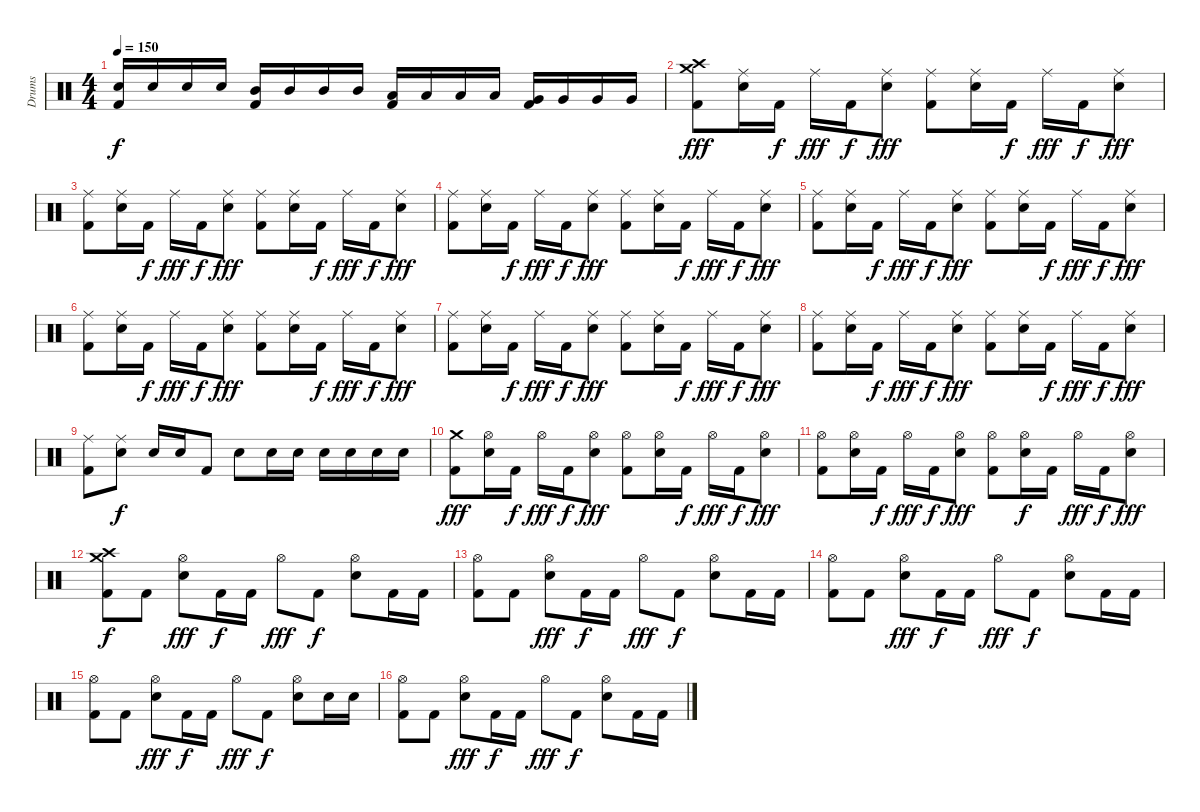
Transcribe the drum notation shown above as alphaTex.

\track ("Drums" "Drums") {instrument percussion}
\staff {score}
\articulation defaults
\ts (4 4)
\tempo 150
\clef neutral
\ks c
("Kick (hit) 2" "Electric Snare (hit)").16{dy f} "Electric Snare (hit)".16 "Electric Snare (hit)".16 "Electric Snare (hit)".16 ("Mid Tom (hit)" "Kick (hit) 2").16 "Mid Tom (hit)".16 "Mid Tom (hit)".16 "Mid Tom (hit)".16 ("Low Tom (hit)" "Kick (hit) 2").16 "Low Tom (hit)".16 "Low Tom (hit)".16 "Low Tom (hit)".16 ("Very Low Tom (hit)" "Kick (hit) 2").16 "Very Low Tom (hit)".16 "Very Low Tom (hit)".16 "Very Low Tom (hit)".16 |
("Crash high (hit)" "Crash medium (hit)" "Kick (hit) 2").8{dy fff} ("Ride (middle)" "Electric Snare (hit)").16 "Kick (hit) 2".16{dy f} "Ride (middle)".16{dy fff} "Kick (hit) 2".16{dy f} ("Ride (middle)" "Electric Snare (hit)").8{dy fff} ("Ride (middle)" "Kick (hit) 2").8 ("Ride (middle)" "Electric Snare (hit)").16 "Kick (hit) 2".16{dy f} "Ride (middle)".16{dy fff} "Kick (hit) 2".16{dy f} ("Ride (middle)" "Electric Snare (hit)").8{dy fff} |
("Ride (middle)" "Kick (hit) 2").8 ("Ride (middle)" "Electric Snare (hit)").16 "Kick (hit) 2".16{dy f} "Ride (middle)".16{dy fff} "Kick (hit) 2".16{dy f} ("Ride (middle)" "Electric Snare (hit)").8{dy fff} ("Ride (middle)" "Kick (hit) 2").8 ("Ride (middle)" "Electric Snare (hit)").16 "Kick (hit) 2".16{dy f} "Ride (middle)".16{dy fff} "Kick (hit) 2".16{dy f} ("Ride (middle)" "Electric Snare (hit)").8{dy fff} |
("Ride (middle)" "Kick (hit) 2").8 ("Ride (middle)" "Electric Snare (hit)").16 "Kick (hit) 2".16{dy f} "Ride (middle)".16{dy fff} "Kick (hit) 2".16{dy f} ("Ride (middle)" "Electric Snare (hit)").8{dy fff} ("Ride (middle)" "Kick (hit) 2").8 ("Ride (middle)" "Electric Snare (hit)").16 "Kick (hit) 2".16{dy f} "Ride (middle)".16{dy fff} "Kick (hit) 2".16{dy f} ("Ride (middle)" "Electric Snare (hit)").8{dy fff} |
("Ride (middle)" "Kick (hit) 2").8 ("Ride (middle)" "Electric Snare (hit)").16 "Kick (hit) 2".16{dy f} "Ride (middle)".16{dy fff} "Kick (hit) 2".16{dy f} ("Ride (middle)" "Electric Snare (hit)").8{dy fff} ("Ride (middle)" "Kick (hit) 2").8 ("Ride (middle)" "Electric Snare (hit)").16 "Kick (hit) 2".16{dy f} "Ride (middle)".16{dy fff} "Kick (hit) 2".16{dy f} ("Ride (middle)" "Electric Snare (hit)").8{dy fff} |
("Ride (middle)" "Kick (hit) 2").8 ("Ride (middle)" "Electric Snare (hit)").16 "Kick (hit) 2".16{dy f} "Ride (middle)".16{dy fff} "Kick (hit) 2".16{dy f} ("Ride (middle)" "Electric Snare (hit)").8{dy fff} ("Ride (middle)" "Kick (hit) 2").8 ("Ride (middle)" "Electric Snare (hit)").16 "Kick (hit) 2".16{dy f} "Ride (middle)".16{dy fff} "Kick (hit) 2".16{dy f} ("Ride (middle)" "Electric Snare (hit)").8{dy fff} |
("Ride (middle)" "Kick (hit) 2").8 ("Ride (middle)" "Electric Snare (hit)").16 "Kick (hit) 2".16{dy f} "Ride (middle)".16{dy fff} "Kick (hit) 2".16{dy f} ("Ride (middle)" "Electric Snare (hit)").8{dy fff} ("Ride (middle)" "Kick (hit) 2").8 ("Ride (middle)" "Electric Snare (hit)").16 "Kick (hit) 2".16{dy f} "Ride (middle)".16{dy fff} "Kick (hit) 2".16{dy f} ("Ride (middle)" "Electric Snare (hit)").8{dy fff} |
("Ride (middle)" "Kick (hit) 2").8 ("Ride (middle)" "Electric Snare (hit)").16 "Kick (hit) 2".16{dy f} "Ride (middle)".16{dy fff} "Kick (hit) 2".16{dy f} ("Ride (middle)" "Electric Snare (hit)").8{dy fff} ("Ride (middle)" "Kick (hit) 2").8 ("Ride (middle)" "Electric Snare (hit)").16 "Kick (hit) 2".16{dy f} "Ride (middle)".16{dy fff} "Kick (hit) 2".16{dy f} ("Ride (middle)" "Electric Snare (hit)").8{dy fff} |
("Ride (middle)" "Kick (hit) 2").8 ("Ride (middle)" "Electric Snare (hit)").8{dy f} "Electric Snare (hit)".16 "Electric Snare (hit)".16 "Kick (hit) 2".8 "Electric Snare (hit)".8 "Electric Snare (hit)".16 "Electric Snare (hit)".16 "Electric Snare (hit)".16 "Electric Snare (hit)".16 "Electric Snare (hit)".16 "Electric Snare (hit)".16 |
("Crash medium (hit)" "Kick (hit) 2").8{dy fff} ("Hi-Hat (open)" "Electric Snare (hit)").16 "Kick (hit) 2".16{dy f} "Hi-Hat (open)".16{dy fff} "Kick (hit) 2".16{dy f} ("Hi-Hat (open)" "Electric Snare (hit)").8{dy fff} ("Hi-Hat (open)" "Kick (hit) 2").8 ("Hi-Hat (open)" "Electric Snare (hit)").16 "Kick (hit) 2".16{dy f} "Hi-Hat (open)".16{dy fff} "Kick (hit) 2".16{dy f} ("Hi-Hat (open)" "Electric Snare (hit)").8{dy fff} |
("Hi-Hat (open)" "Kick (hit) 2").8 ("Hi-Hat (open)" "Electric Snare (hit)").16 "Kick (hit) 2".16{dy f} "Hi-Hat (open)".16{dy fff} "Kick (hit) 2".16{dy f} ("Hi-Hat (open)" "Electric Snare (hit)").8{dy fff} ("Hi-Hat (open)" "Kick (hit) 2").8 ("Hi-Hat (open)" "Electric Snare (hit)").16{dy f} "Kick (hit) 2".16 "Hi-Hat (open)".16{dy fff} "Kick (hit) 2".16{dy f} ("Hi-Hat (open)" "Electric Snare (hit)").8{dy fff} |
("Crash high (hit)" "Crash medium (hit)" "Kick (hit) 2").8{dy f} "Kick (hit) 2".8 ("Hi-Hat (open)" "Electric Snare (hit)").8{dy fff} "Kick (hit) 2".16{dy f} "Kick (hit) 2".16 "Hi-Hat (open)".8{dy fff} "Kick (hit) 2".8{dy f} ("Hi-Hat (open)" "Electric Snare (hit)").8 "Kick (hit) 2".16 "Kick (hit) 2".16 |
("Hi-Hat (open)" "Kick (hit) 2").8 "Kick (hit) 2".8 ("Hi-Hat (open)" "Electric Snare (hit)").8{dy fff} "Kick (hit) 2".16{dy f} "Kick (hit) 2".16 "Hi-Hat (open)".8{dy fff} "Kick (hit) 2".8{dy f} ("Hi-Hat (open)" "Electric Snare (hit)").8 "Kick (hit) 2".16 "Kick (hit) 2".16 |
("Hi-Hat (open)" "Kick (hit) 2").8 "Kick (hit) 2".8 ("Hi-Hat (open)" "Electric Snare (hit)").8{dy fff} "Kick (hit) 2".16{dy f} "Kick (hit) 2".16 "Hi-Hat (open)".8{dy fff} "Kick (hit) 2".8{dy f} ("Hi-Hat (open)" "Electric Snare (hit)").8 "Kick (hit) 2".16 "Kick (hit) 2".16 |
("Hi-Hat (open)" "Kick (hit) 2").8 "Kick (hit) 2".8 ("Hi-Hat (open)" "Electric Snare (hit)").8{dy fff} "Kick (hit) 2".16{dy f} "Kick (hit) 2".16 "Hi-Hat (open)".8{dy fff} "Kick (hit) 2".8{dy f} ("Hi-Hat (open)" "Electric Snare (hit)").8 "Electric Snare (hit)".16 "Electric Snare (hit)".16 |
("Hi-Hat (open)" "Kick (hit) 2").8 "Kick (hit) 2".8 ("Hi-Hat (open)" "Electric Snare (hit)").8{dy fff} "Kick (hit) 2".16{dy f} "Kick (hit) 2".16 "Hi-Hat (open)".8{dy fff} "Kick (hit) 2".8{dy f} ("Hi-Hat (open)" "Electric Snare (hit)").8 "Kick (hit) 2".16 "Kick (hit) 2".16
